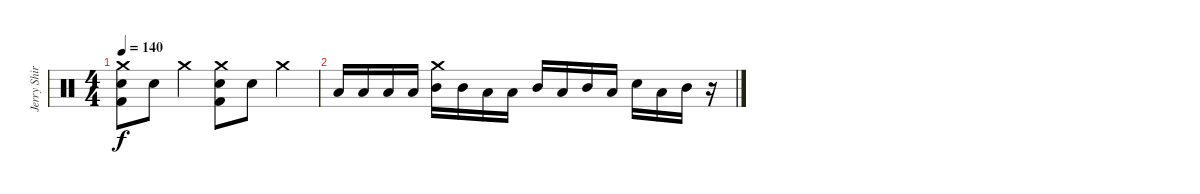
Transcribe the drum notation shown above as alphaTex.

\track ("Jerry Shirley (Drums)" "Jerry Shir") {instrument percussion bank 255}
\staff {score}
\articulation defaults
\ts (4 4)
\tempo 140
\clef neutral
\ks c
("Electric Snare (hit)" "Kick (hit) 2" "Crash medium (hit)").8{dy f} "Electric Snare (hit)".8 "Crash medium (hit)".4 ("Electric Snare (hit)" "Kick (hit) 2" "Crash medium (hit)").8 "Electric Snare (hit)".8 "Crash medium (hit)".4 |
"Low Tom (hit)".16 "Low Tom (hit)".16 "Low Tom (hit)".16 "Low Tom (hit)".16 ("Mid Tom (hit)" "Crash medium (hit)").16 "Mid Tom (hit)".16 "Low Tom (hit)".16 "Low Tom (hit)".16 "Mid Tom (hit)".16 "Low Tom (hit)".16 "Mid Tom (hit)".16 "Low Tom (hit)".16 "Electric Snare (hit)".16 "Low Tom (hit)".16 "Mid Tom (hit)".16 r.16
